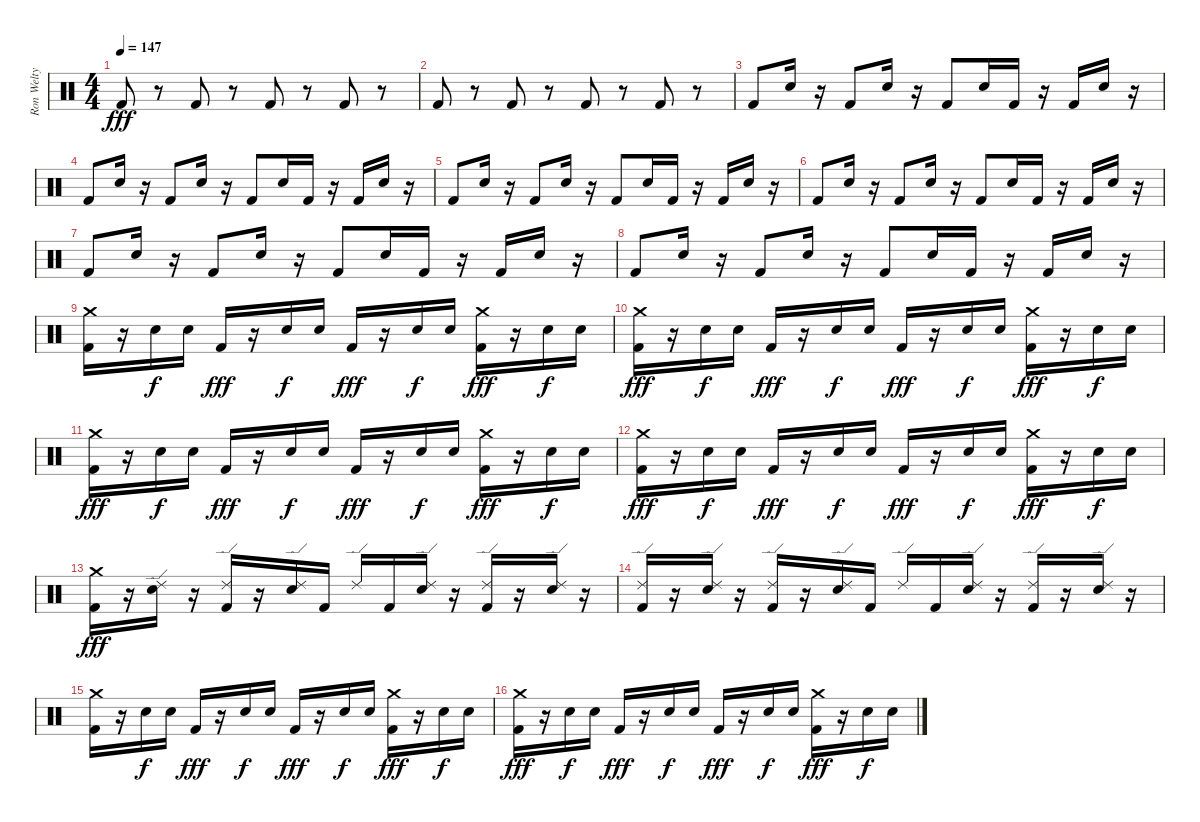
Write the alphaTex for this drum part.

\track ("Ron Welty" "Ron Welty") {instrument percussion}
\staff {score}
\articulation defaults
\ts (4 4)
\tempo 147
\clef neutral
\ks c "Kick (hit) 2".8{dy fff}
r.8 "Kick (hit) 2".8 r.8 "Kick (hit) 2".8 r.8 "Kick (hit) 2".8 r.8 |
"Kick (hit) 2".8 r.8 "Kick (hit) 2".8 r.8 "Kick (hit) 2".8 r.8 "Kick (hit) 2".8 r.8 |
"Kick (hit) 2".8 "Snare (hit) 2".16 r.16 "Kick (hit) 2".8 "Snare (hit) 2".16 r.16 "Kick (hit) 2".8 "Snare (hit) 2".16 "Kick (hit) 2".16 r.16 "Kick (hit) 2".16 "Snare (hit) 2".16 r.16 |
"Kick (hit) 2".8 "Snare (hit) 2".16 r.16 "Kick (hit) 2".8 "Snare (hit) 2".16 r.16 "Kick (hit) 2".8 "Snare (hit) 2".16 "Kick (hit) 2".16 r.16 "Kick (hit) 2".16 "Snare (hit) 2".16 r.16 |
"Kick (hit) 2".8 "Snare (hit) 2".16 r.16 "Kick (hit) 2".8 "Snare (hit) 2".16 r.16 "Kick (hit) 2".8 "Snare (hit) 2".16 "Kick (hit) 2".16 r.16 "Kick (hit) 2".16 "Snare (hit) 2".16 r.16 |
"Kick (hit) 2".8 "Snare (hit) 2".16 r.16 "Kick (hit) 2".8 "Snare (hit) 2".16 r.16 "Kick (hit) 2".8 "Snare (hit) 2".16 "Kick (hit) 2".16 r.16 "Kick (hit) 2".16 "Snare (hit) 2".16 r.16 |
"Kick (hit) 2".8 "Snare (hit) 2".16 r.16 "Kick (hit) 2".8 "Snare (hit) 2".16 r.16 "Kick (hit) 2".8 "Snare (hit) 2".16 "Kick (hit) 2".16 r.16 "Kick (hit) 2".16 "Snare (hit) 2".16 r.16 |
"Kick (hit) 2".8 "Snare (hit) 2".16 r.16 "Kick (hit) 2".8 "Snare (hit) 2".16 r.16 "Kick (hit) 2".8 "Snare (hit) 2".16 "Kick (hit) 2".16 r.16 "Kick (hit) 2".16 "Snare (hit) 2".16 r.16 |
("Kick (hit) 2" "Crash medium (hit)").16 r.16 "Snare (hit) 2".16{dy f} "Snare (hit) 2".16 "Kick (hit) 2".16{dy fff} r.16 "Snare (hit) 2".16{dy f} "Snare (hit) 2".16 "Kick (hit) 2".16{dy fff} r.16 "Snare (hit) 2".16{dy f} "Snare (hit) 2".16 ("Kick (hit) 2" "Crash medium (hit)").16{dy fff} r.16 "Snare (hit) 2".16{dy f} "Snare (hit) 2".16 |
("Kick (hit) 2" "Crash medium (hit)").16{dy fff} r.16 "Snare (hit) 2".16{dy f} "Snare (hit) 2".16 "Kick (hit) 2".16{dy fff} r.16 "Snare (hit) 2".16{dy f} "Snare (hit) 2".16 "Kick (hit) 2".16{dy fff} r.16 "Snare (hit) 2".16{dy f} "Snare (hit) 2".16 ("Kick (hit) 2" "Crash medium (hit)").16{dy fff} r.16 "Snare (hit) 2".16{dy f} "Snare (hit) 2".16 |
("Kick (hit) 2" "Crash medium (hit)").16{dy fff} r.16 "Snare (hit) 2".16{dy f} "Snare (hit) 2".16 "Kick (hit) 2".16{dy fff} r.16 "Snare (hit) 2".16{dy f} "Snare (hit) 2".16 "Kick (hit) 2".16{dy fff} r.16 "Snare (hit) 2".16{dy f} "Snare (hit) 2".16 ("Kick (hit) 2" "Crash medium (hit)").16{dy fff} r.16 "Snare (hit) 2".16{dy f} "Snare (hit) 2".16 |
("Kick (hit) 2" "Crash medium (hit)").16{dy fff} r.16 "Snare (hit) 2".16{dy f} "Snare (hit) 2".16 "Kick (hit) 2".16{dy fff} r.16 "Snare (hit) 2".16{dy f} "Snare (hit) 2".16 "Kick (hit) 2".16{dy fff} r.16 "Snare (hit) 2".16{dy f} "Snare (hit) 2".16 ("Kick (hit) 2" "Crash medium (hit)").16{dy fff} r.16 "Snare (hit) 2".16{dy f} "Snare (hit) 2".16 |
("Kick (hit) 2" "Crash medium (hit)").16{dy fff} r.16 ("Snare (hit) 2" "Ride (edge) 2").16 r.16 ("Kick (hit) 2" "Ride (edge) 2").16 r.16 ("Snare (hit) 2" "Ride (edge) 2").16 "Kick (hit) 2".16 "Ride (edge) 2".16 "Kick (hit) 2".16 ("Snare (hit) 2" "Ride (edge) 2").16 r.16 ("Kick (hit) 2" "Ride (edge) 2").16 r.16 ("Snare (hit) 2" "Ride (edge) 2").16 r.16 |
("Kick (hit) 2" "Ride (edge) 2").16 r.16 ("Snare (hit) 2" "Ride (edge) 2").16 r.16 ("Kick (hit) 2" "Ride (edge) 2").16 r.16 ("Snare (hit) 2" "Ride (edge) 2").16 "Kick (hit) 2".16 "Ride (edge) 2".16 "Kick (hit) 2".16 ("Snare (hit) 2" "Ride (edge) 2").16 r.16 ("Kick (hit) 2" "Ride (edge) 2").16 r.16 ("Snare (hit) 2" "Ride (edge) 2").16 r.16 |
("Kick (hit) 2" "Crash medium (hit)").16 r.16 "Snare (hit) 2".16{dy f} "Snare (hit) 2".16 "Kick (hit) 2".16{dy fff} r.16 "Snare (hit) 2".16{dy f} "Snare (hit) 2".16 "Kick (hit) 2".16{dy fff} r.16 "Snare (hit) 2".16{dy f} "Snare (hit) 2".16 ("Kick (hit) 2" "Crash medium (hit)").16{dy fff} r.16 "Snare (hit) 2".16{dy f} "Snare (hit) 2".16 |
("Kick (hit) 2" "Crash medium (hit)").16{dy fff} r.16 "Snare (hit) 2".16{dy f} "Snare (hit) 2".16 "Kick (hit) 2".16{dy fff} r.16 "Snare (hit) 2".16{dy f} "Snare (hit) 2".16 "Kick (hit) 2".16{dy fff} r.16 "Snare (hit) 2".16{dy f} "Snare (hit) 2".16 ("Kick (hit) 2" "Crash medium (hit)").16{dy fff} r.16 "Snare (hit) 2".16{dy f} "Snare (hit) 2".16
